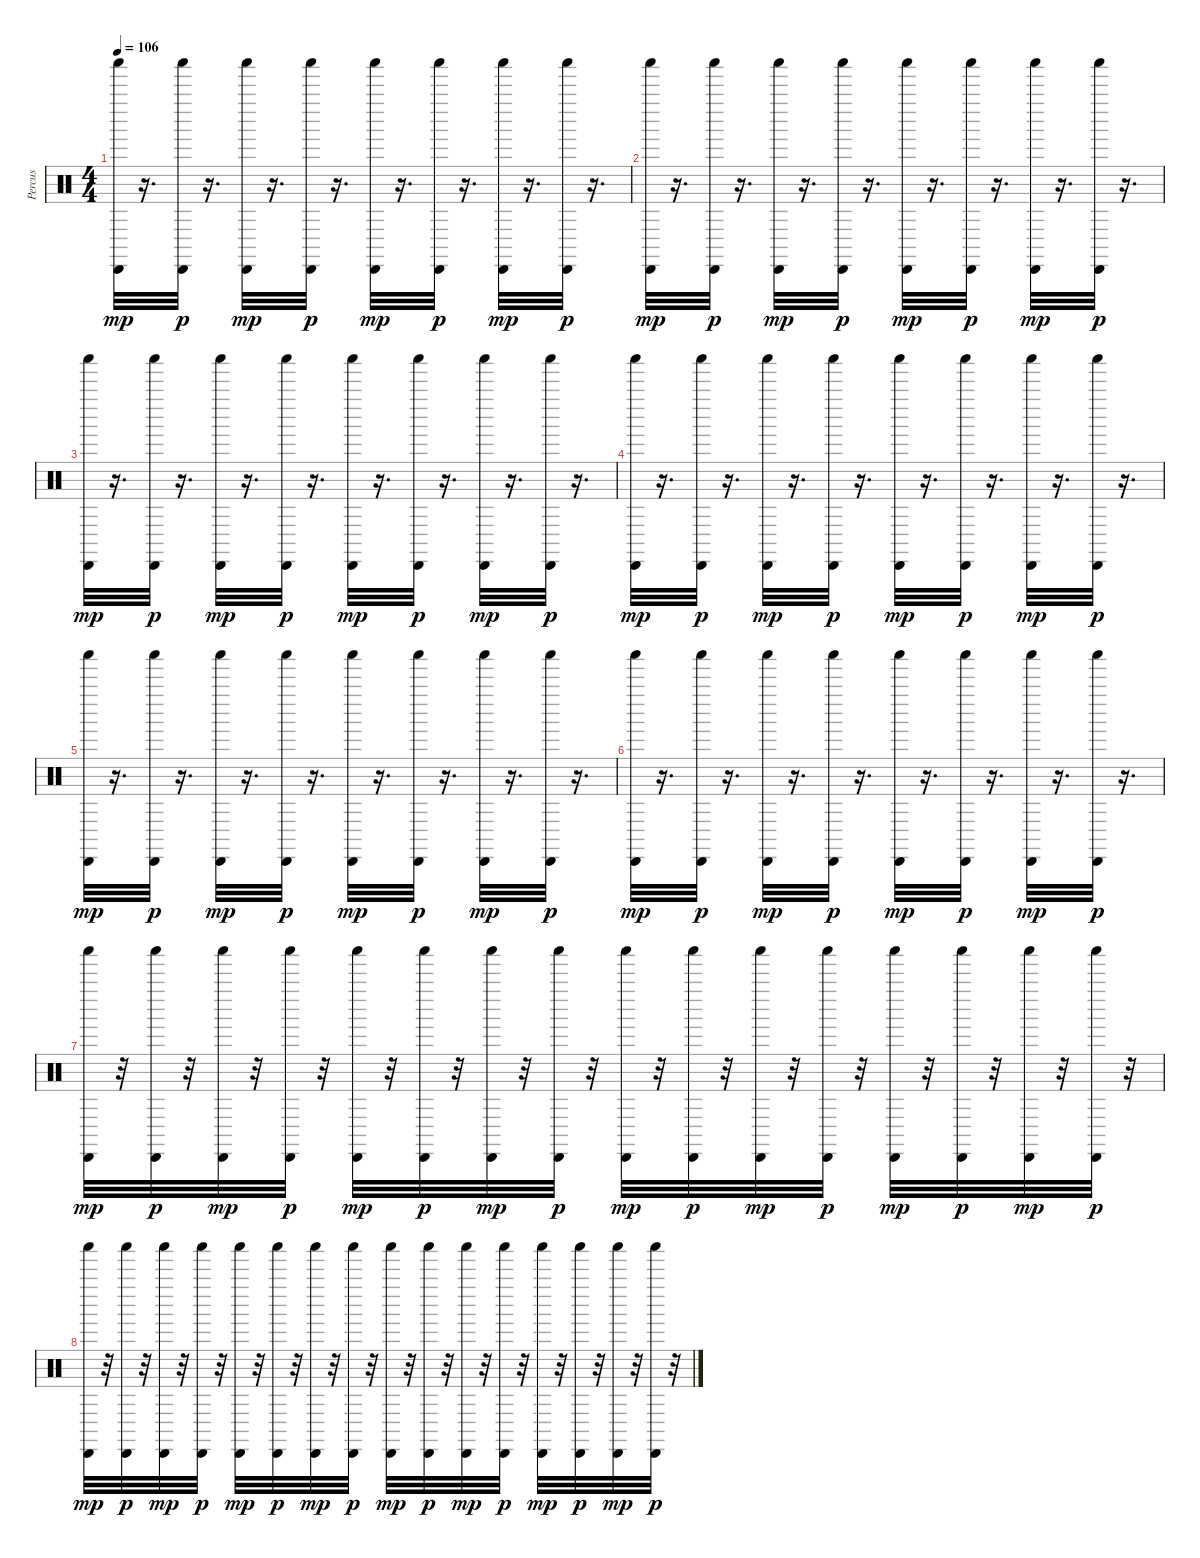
\track ("Percus" "Percus") {instrument percussion}
\staff {score}
\articulation defaults
\ts (4 4)
\tempo 106
\clef neutral
\ks c
("Shaker (hit)" "Cabasa (hit)").32{dy mp} r.16{d} ("Shaker (hit)" "Cabasa (hit)").32{dy p} r.16{d} ("Shaker (hit)" "Cabasa (hit)").32{dy mp} r.16{d} ("Shaker (hit)" "Cabasa (hit)").32{dy p} r.16{d} ("Shaker (hit)" "Cabasa (hit)").32{dy mp} r.16{d} ("Shaker (hit)" "Cabasa (hit)").32{dy p} r.16{d} ("Shaker (hit)" "Cabasa (hit)").32{dy mp} r.16{d} ("Shaker (hit)" "Cabasa (hit)").32{dy p} r.16{d} |
("Shaker (hit)" "Cabasa (hit)").32{dy mp} r.16{d} ("Shaker (hit)" "Cabasa (hit)").32{dy p} r.16{d} ("Shaker (hit)" "Cabasa (hit)").32{dy mp} r.16{d} ("Shaker (hit)" "Cabasa (hit)").32{dy p} r.16{d} ("Shaker (hit)" "Cabasa (hit)").32{dy mp} r.16{d} ("Shaker (hit)" "Cabasa (hit)").32{dy p} r.16{d} ("Shaker (hit)" "Cabasa (hit)").32{dy mp} r.16{d} ("Shaker (hit)" "Cabasa (hit)").32{dy p} r.16{d} |
("Shaker (hit)" "Cabasa (hit)").32{dy mp} r.16{d} ("Shaker (hit)" "Cabasa (hit)").32{dy p} r.16{d} ("Shaker (hit)" "Cabasa (hit)").32{dy mp} r.16{d} ("Shaker (hit)" "Cabasa (hit)").32{dy p} r.16{d} ("Shaker (hit)" "Cabasa (hit)").32{dy mp} r.16{d} ("Shaker (hit)" "Cabasa (hit)").32{dy p} r.16{d} ("Shaker (hit)" "Cabasa (hit)").32{dy mp} r.16{d} ("Shaker (hit)" "Cabasa (hit)").32{dy p} r.16{d} |
("Shaker (hit)" "Cabasa (hit)").32{dy mp} r.16{d} ("Shaker (hit)" "Cabasa (hit)").32{dy p} r.16{d} ("Shaker (hit)" "Cabasa (hit)").32{dy mp} r.16{d} ("Shaker (hit)" "Cabasa (hit)").32{dy p} r.16{d} ("Shaker (hit)" "Cabasa (hit)").32{dy mp} r.16{d} ("Shaker (hit)" "Cabasa (hit)").32{dy p} r.16{d} ("Shaker (hit)" "Cabasa (hit)").32{dy mp} r.16{d} ("Shaker (hit)" "Cabasa (hit)").32{dy p} r.16{d} |
("Shaker (hit)" "Cabasa (hit)").32{dy mp} r.16{d} ("Shaker (hit)" "Cabasa (hit)").32{dy p} r.16{d} ("Shaker (hit)" "Cabasa (hit)").32{dy mp} r.16{d} ("Shaker (hit)" "Cabasa (hit)").32{dy p} r.16{d} ("Shaker (hit)" "Cabasa (hit)").32{dy mp} r.16{d} ("Shaker (hit)" "Cabasa (hit)").32{dy p} r.16{d} ("Shaker (hit)" "Cabasa (hit)").32{dy mp} r.16{d} ("Shaker (hit)" "Cabasa (hit)").32{dy p} r.16{d} |
("Shaker (hit)" "Cabasa (hit)").32{dy mp} r.16{d} ("Shaker (hit)" "Cabasa (hit)").32{dy p} r.16{d} ("Shaker (hit)" "Cabasa (hit)").32{dy mp} r.16{d} ("Shaker (hit)" "Cabasa (hit)").32{dy p} r.16{d} ("Shaker (hit)" "Cabasa (hit)").32{dy mp} r.16{d} ("Shaker (hit)" "Cabasa (hit)").32{dy p} r.16{d} ("Shaker (hit)" "Cabasa (hit)").32{dy mp} r.16{d} ("Shaker (hit)" "Cabasa (hit)").32{dy p} r.16{d} |
("Shaker (hit)" "Cabasa (hit)").32{dy mp} r.32 ("Shaker (hit)" "Cabasa (hit)").32{dy p} r.32 ("Shaker (hit)" "Cabasa (hit)").32{dy mp} r.32 ("Shaker (hit)" "Cabasa (hit)").32{dy p} r.32 ("Shaker (hit)" "Cabasa (hit)").32{dy mp} r.32 ("Shaker (hit)" "Cabasa (hit)").32{dy p} r.32 ("Shaker (hit)" "Cabasa (hit)").32{dy mp} r.32 ("Shaker (hit)" "Cabasa (hit)").32{dy p} r.32 ("Shaker (hit)" "Cabasa (hit)").32{dy mp} r.32 ("Shaker (hit)" "Cabasa (hit)").32{dy p} r.32 ("Shaker (hit)" "Cabasa (hit)").32{dy mp} r.32 ("Shaker (hit)" "Cabasa (hit)").32{dy p} r.32 ("Shaker (hit)" "Cabasa (hit)").32{dy mp} r.32 ("Shaker (hit)" "Cabasa (hit)").32{dy p} r.32 ("Shaker (hit)" "Cabasa (hit)").32{dy mp} r.32 ("Shaker (hit)" "Cabasa (hit)").32{dy p} r.32 |
("Shaker (hit)" "Cabasa (hit)").32{dy mp} r.32 ("Shaker (hit)" "Cabasa (hit)").32{dy p} r.32 ("Shaker (hit)" "Cabasa (hit)").32{dy mp} r.32 ("Shaker (hit)" "Cabasa (hit)").32{dy p} r.32 ("Shaker (hit)" "Cabasa (hit)").32{dy mp} r.32 ("Shaker (hit)" "Cabasa (hit)").32{dy p} r.32 ("Shaker (hit)" "Cabasa (hit)").32{dy mp} r.32 ("Shaker (hit)" "Cabasa (hit)").32{dy p} r.32 ("Shaker (hit)" "Cabasa (hit)").32{dy mp} r.32 ("Shaker (hit)" "Cabasa (hit)").32{dy p} r.32 ("Shaker (hit)" "Cabasa (hit)").32{dy mp} r.32 ("Shaker (hit)" "Cabasa (hit)").32{dy p} r.32 ("Shaker (hit)" "Cabasa (hit)").32{dy mp} r.32 ("Shaker (hit)" "Cabasa (hit)").32{dy p} r.32 ("Shaker (hit)" "Cabasa (hit)").32{dy mp} r.32 ("Shaker (hit)" "Cabasa (hit)").32{dy p} r.32
